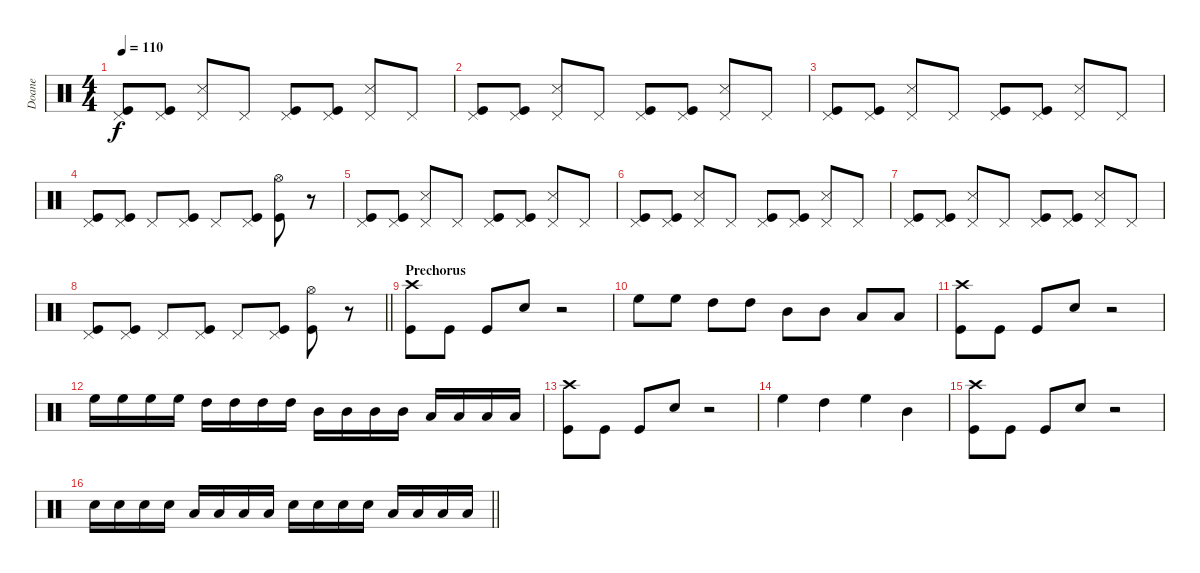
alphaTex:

\track ("Doane" "Doane") {instrument percussion}
\staff {score}
\articulation defaults
\ts (4 4)
\tempo 110
\clef neutral
\ks c
("Pedal Hi-Hat (hit)" "Kick (hit)").8{dy f} ("Pedal Hi-Hat (hit)" "Kick (hit)").8 ("Pedal Hi-Hat (hit)" "Snare (side stick) 3").8 "Pedal Hi-Hat (hit)".8 ("Pedal Hi-Hat (hit)" "Kick (hit)").8 ("Pedal Hi-Hat (hit)" "Kick (hit)").8 ("Pedal Hi-Hat (hit)" "Snare (side stick) 3").8 "Pedal Hi-Hat (hit)".8 |
("Pedal Hi-Hat (hit)" "Kick (hit)").8 ("Pedal Hi-Hat (hit)" "Kick (hit)").8 ("Pedal Hi-Hat (hit)" "Snare (side stick) 3").8 "Pedal Hi-Hat (hit)".8 ("Pedal Hi-Hat (hit)" "Kick (hit)").8 ("Pedal Hi-Hat (hit)" "Kick (hit)").8 ("Pedal Hi-Hat (hit)" "Snare (side stick) 3").8 "Pedal Hi-Hat (hit)".8 |
("Pedal Hi-Hat (hit)" "Kick (hit)").8 ("Pedal Hi-Hat (hit)" "Kick (hit)").8 ("Pedal Hi-Hat (hit)" "Snare (side stick) 3").8 "Pedal Hi-Hat (hit)".8 ("Pedal Hi-Hat (hit)" "Kick (hit)").8 ("Pedal Hi-Hat (hit)" "Kick (hit)").8 ("Pedal Hi-Hat (hit)" "Snare (side stick) 3").8 "Pedal Hi-Hat (hit)".8 |
("Pedal Hi-Hat (hit)" "Kick (hit)").8 ("Pedal Hi-Hat (hit)" "Kick (hit)").8 "Pedal Hi-Hat (hit)".8 ("Pedal Hi-Hat (hit)" "Kick (hit)").8 "Pedal Hi-Hat (hit)".8 ("Pedal Hi-Hat (hit)" "Kick (hit)").8 ("Hi-Hat (open)" "Kick (hit)").8 r.8 |
("Pedal Hi-Hat (hit)" "Kick (hit)").8 ("Pedal Hi-Hat (hit)" "Kick (hit)").8 ("Pedal Hi-Hat (hit)" "Snare (side stick) 3").8 "Pedal Hi-Hat (hit)".8 ("Pedal Hi-Hat (hit)" "Kick (hit)").8 ("Pedal Hi-Hat (hit)" "Kick (hit)").8 ("Pedal Hi-Hat (hit)" "Snare (side stick) 3").8 "Pedal Hi-Hat (hit)".8 |
("Pedal Hi-Hat (hit)" "Kick (hit)").8 ("Pedal Hi-Hat (hit)" "Kick (hit)").8 ("Pedal Hi-Hat (hit)" "Snare (side stick) 3").8 "Pedal Hi-Hat (hit)".8 ("Pedal Hi-Hat (hit)" "Kick (hit)").8 ("Pedal Hi-Hat (hit)" "Kick (hit)").8 ("Pedal Hi-Hat (hit)" "Snare (side stick) 3").8 "Pedal Hi-Hat (hit)".8 |
("Pedal Hi-Hat (hit)" "Kick (hit)").8 ("Pedal Hi-Hat (hit)" "Kick (hit)").8 ("Pedal Hi-Hat (hit)" "Snare (side stick) 3").8 "Pedal Hi-Hat (hit)".8 ("Pedal Hi-Hat (hit)" "Kick (hit)").8 ("Pedal Hi-Hat (hit)" "Kick (hit)").8 ("Pedal Hi-Hat (hit)" "Snare (side stick) 3").8 "Pedal Hi-Hat (hit)".8 |
\barLineRight lightlight
("Pedal Hi-Hat (hit)" "Kick (hit)").8 ("Pedal Hi-Hat (hit)" "Kick (hit)").8 "Pedal Hi-Hat (hit)".8 ("Pedal Hi-Hat (hit)" "Kick (hit)").8 "Pedal Hi-Hat (hit)".8 ("Pedal Hi-Hat (hit)" "Kick (hit)").8 ("Hi-Hat (open)" "Kick (hit)").8 r.8 |
\section ("" "Prechorus")
("Crash high (hit)" "Kick (hit)").8 "Kick (hit)".8 "Kick (hit)".8 "Snare (hit) 2".8 r.2 |
"High Floor Tom (hit)".8 "High Floor Tom (hit)".8 "High Tom (hit)".8 "High Tom (hit)".8 "Mid Tom (hit)".8 "Mid Tom (hit)".8 "Low Tom (hit)".8 "Low Tom (hit)".8 |
("Crash high (hit)" "Kick (hit)").8 "Kick (hit)".8 "Kick (hit)".8 "Snare (hit) 2".8 r.2 |
"High Floor Tom (hit)".16 "High Floor Tom (hit)".16 "High Floor Tom (hit)".16 "High Floor Tom (hit)".16 "High Tom (hit)".16 "High Tom (hit)".16 "High Tom (hit)".16 "High Tom (hit)".16 "Mid Tom (hit)".16 "Mid Tom (hit)".16 "Mid Tom (hit)".16 "Mid Tom (hit)".16 "Low Tom (hit)".16 "Low Tom (hit)".16 "Low Tom (hit)".16 "Low Tom (hit)".16 |
("Crash high (hit)" "Kick (hit)").8 "Kick (hit)".8 "Kick (hit)".8 "Snare (hit) 2".8 r.2 |
"High Floor Tom (hit)".4 "High Tom (hit)".4 "High Floor Tom (hit)".4 "Mid Tom (hit)".4 |
("Crash high (hit)" "Kick (hit)").8 "Kick (hit)".8 "Kick (hit)".8 "Snare (hit) 2".8 r.2 |
\barLineRight lightlight "Snare (hit) 2".16 "Snare (hit) 2".16 "Snare (hit) 2".16 "Snare (hit) 2".16 "Low Tom (hit)".16 "Low Tom (hit)".16 "Low Tom (hit)".16 "Low Tom (hit)".16 "Snare (hit) 2".16 "Snare (hit) 2".16 "Snare (hit) 2".16 "Snare (hit) 2".16 "Low Tom (hit)".16 "Low Tom (hit)".16 "Low Tom (hit)".16 "Low Tom (hit)".16
